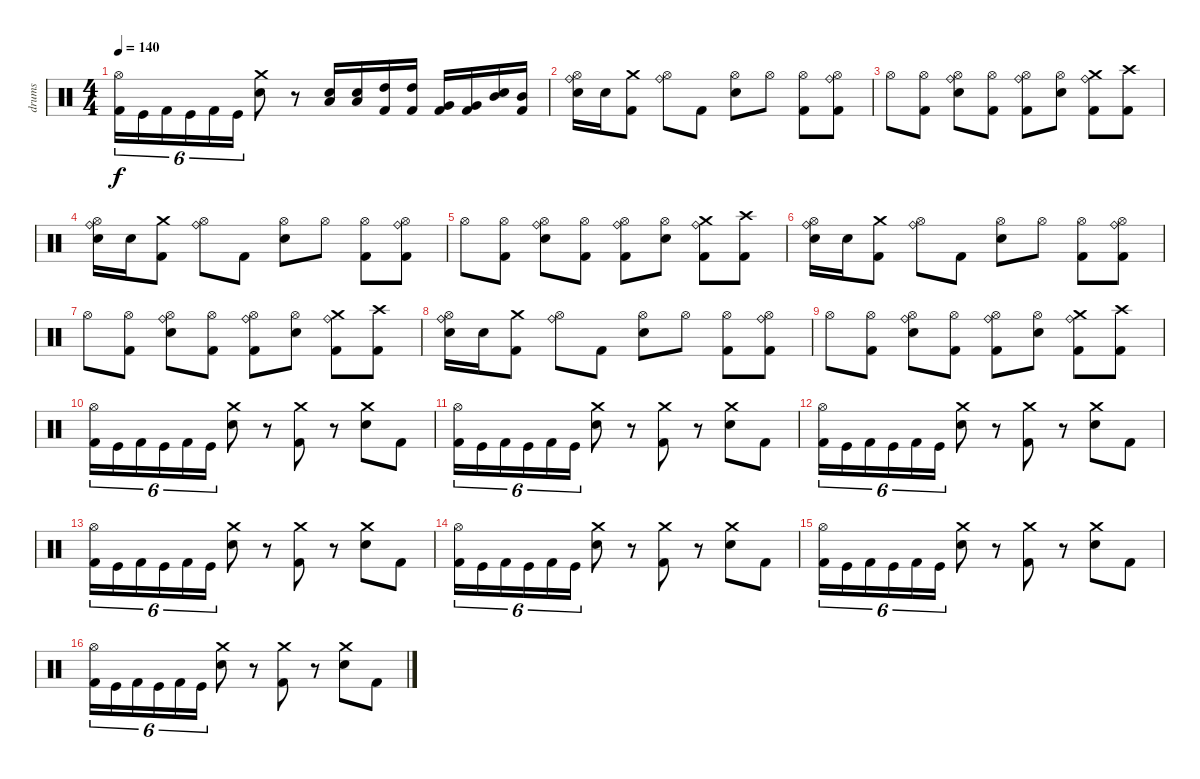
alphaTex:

\track ("drums" "drums") {instrument percussion}
\staff {score}
\articulation defaults
\ts (4 4)
\tempo 140
\clef neutral
\ks c
("Hi-Hat (open)" "Kick (hit) 2").16{tu (6 4) dy f} "Kick (hit)".16{tu (6 4)} "Kick (hit) 2".16{tu (6 4)} "Kick (hit)".16{tu (6 4)} "Kick (hit) 2".16{tu (6 4)} "Kick (hit)".16{tu (6 4)} ("Crash medium (hit)" "Snare (hit) 2").8 r.8 ("Low Floor Tom (hit)" "Snare (hit) 2").16 ("Low Floor Tom (hit)" "Snare (hit) 2").16 ("High Tom (hit)" "Kick (hit) 2").16 ("High Tom (hit)" "Kick (hit) 2").16 ("Very Low Tom (hit)" "Kick (hit) 2").16 ("Very Low Tom (hit)" "Kick (hit) 2").16 ("Mid Tom (hit)" "Snare (hit) 2").16 ("Mid Tom (hit)" "Kick (hit) 2").16 |
("Ride (bell)" "Hi-Hat (open)" "Snare (hit) 2").16 "Snare (hit) 2".16 ("Crash medium (hit)" "Kick (hit) 2").8 ("Ride (bell)" "Hi-Hat (open)").8 "Kick (hit) 2".8 ("Hi-Hat (open)" "Snare (hit) 2").8 "Hi-Hat (open)".8 ("Hi-Hat (open)" "Kick (hit) 2").8 ("Ride (bell)" "Hi-Hat (open)" "Kick (hit) 2").8 |
"Hi-Hat (open)".8 ("Hi-Hat (open)" "Kick (hit) 2").8 ("Ride (bell)" "Hi-Hat (open)" "Snare (hit) 2").8 ("Hi-Hat (open)" "Kick (hit) 2").8 ("Ride (bell)" "Hi-Hat (open)" "Kick (hit) 2").8 ("Hi-Hat (open)" "Snare (hit) 2").8 ("Ride (bell)" "Crash medium (hit)" "Kick (hit) 2").8 ("Crash high (hit)" "Kick (hit) 2").8 |
("Ride (bell)" "Hi-Hat (open)" "Snare (hit) 2").16 "Snare (hit) 2".16 ("Crash medium (hit)" "Kick (hit) 2").8 ("Ride (bell)" "Hi-Hat (open)").8 "Kick (hit) 2".8 ("Hi-Hat (open)" "Snare (hit) 2").8 "Hi-Hat (open)".8 ("Hi-Hat (open)" "Kick (hit) 2").8 ("Ride (bell)" "Hi-Hat (open)" "Kick (hit) 2").8 |
"Hi-Hat (open)".8 ("Hi-Hat (open)" "Kick (hit) 2").8 ("Ride (bell)" "Hi-Hat (open)" "Snare (hit) 2").8 ("Hi-Hat (open)" "Kick (hit) 2").8 ("Ride (bell)" "Hi-Hat (open)" "Kick (hit) 2").8 ("Hi-Hat (open)" "Snare (hit) 2").8 ("Ride (bell)" "Crash medium (hit)" "Kick (hit) 2").8 ("Crash high (hit)" "Kick (hit) 2").8 |
("Ride (bell)" "Hi-Hat (open)" "Snare (hit) 2").16 "Snare (hit) 2".16 ("Crash medium (hit)" "Kick (hit) 2").8 ("Ride (bell)" "Hi-Hat (open)").8 "Kick (hit) 2".8 ("Hi-Hat (open)" "Snare (hit) 2").8 "Hi-Hat (open)".8 ("Hi-Hat (open)" "Kick (hit) 2").8 ("Ride (bell)" "Hi-Hat (open)" "Kick (hit) 2").8 |
"Hi-Hat (open)".8 ("Hi-Hat (open)" "Kick (hit) 2").8 ("Ride (bell)" "Hi-Hat (open)" "Snare (hit) 2").8 ("Hi-Hat (open)" "Kick (hit) 2").8 ("Ride (bell)" "Hi-Hat (open)" "Kick (hit) 2").8 ("Hi-Hat (open)" "Snare (hit) 2").8 ("Ride (bell)" "Crash medium (hit)" "Kick (hit) 2").8 ("Crash high (hit)" "Kick (hit) 2").8 |
("Ride (bell)" "Hi-Hat (open)" "Snare (hit) 2").16 "Snare (hit) 2".16 ("Crash medium (hit)" "Kick (hit) 2").8 ("Ride (bell)" "Hi-Hat (open)").8 "Kick (hit) 2".8 ("Hi-Hat (open)" "Snare (hit) 2").8 "Hi-Hat (open)".8 ("Hi-Hat (open)" "Kick (hit) 2").8 ("Ride (bell)" "Hi-Hat (open)" "Kick (hit) 2").8 |
"Hi-Hat (open)".8 ("Hi-Hat (open)" "Kick (hit) 2").8 ("Ride (bell)" "Hi-Hat (open)" "Snare (hit) 2").8 ("Hi-Hat (open)" "Kick (hit) 2").8 ("Ride (bell)" "Hi-Hat (open)" "Kick (hit) 2").8 ("Hi-Hat (open)" "Snare (hit) 2").8 ("Ride (bell)" "Crash medium (hit)" "Kick (hit) 2").8 ("Crash high (hit)" "Kick (hit) 2").8 |
("Hi-Hat (open)" "Kick (hit) 2").16{tu (6 4)} "Kick (hit)".16{tu (6 4)} "Kick (hit) 2".16{tu (6 4)} "Kick (hit)".16{tu (6 4)} "Kick (hit) 2".16{tu (6 4)} "Kick (hit)".16{tu (6 4)} ("Crash medium (hit)" "Snare (hit) 2").8 r.8 ("Crash medium (hit)" "Kick (hit) 2").8 r.8 ("Crash medium (hit)" "Snare (hit) 2").8 "Kick (hit) 2".8 |
("Hi-Hat (open)" "Kick (hit) 2").16{tu (6 4)} "Kick (hit)".16{tu (6 4)} "Kick (hit) 2".16{tu (6 4)} "Kick (hit)".16{tu (6 4)} "Kick (hit) 2".16{tu (6 4)} "Kick (hit)".16{tu (6 4)} ("Crash medium (hit)" "Snare (hit) 2").8 r.8 ("Crash medium (hit)" "Kick (hit) 2").8 r.8 ("Crash medium (hit)" "Snare (hit) 2").8 "Kick (hit) 2".8 |
("Hi-Hat (open)" "Kick (hit) 2").16{tu (6 4)} "Kick (hit)".16{tu (6 4)} "Kick (hit) 2".16{tu (6 4)} "Kick (hit)".16{tu (6 4)} "Kick (hit) 2".16{tu (6 4)} "Kick (hit)".16{tu (6 4)} ("Crash medium (hit)" "Snare (hit) 2").8 r.8 ("Crash medium (hit)" "Kick (hit) 2").8 r.8 ("Crash medium (hit)" "Snare (hit) 2").8 "Kick (hit) 2".8 |
("Hi-Hat (open)" "Kick (hit) 2").16{tu (6 4)} "Kick (hit)".16{tu (6 4)} "Kick (hit) 2".16{tu (6 4)} "Kick (hit)".16{tu (6 4)} "Kick (hit) 2".16{tu (6 4)} "Kick (hit)".16{tu (6 4)} ("Crash medium (hit)" "Snare (hit) 2").8 r.8 ("Crash medium (hit)" "Kick (hit) 2").8 r.8 ("Crash medium (hit)" "Snare (hit) 2").8 "Kick (hit) 2".8 |
("Hi-Hat (open)" "Kick (hit) 2").16{tu (6 4)} "Kick (hit)".16{tu (6 4)} "Kick (hit) 2".16{tu (6 4)} "Kick (hit)".16{tu (6 4)} "Kick (hit) 2".16{tu (6 4)} "Kick (hit)".16{tu (6 4)} ("Crash medium (hit)" "Snare (hit) 2").8 r.8 ("Crash medium (hit)" "Kick (hit) 2").8 r.8 ("Crash medium (hit)" "Snare (hit) 2").8 "Kick (hit) 2".8 |
("Hi-Hat (open)" "Kick (hit) 2").16{tu (6 4)} "Kick (hit)".16{tu (6 4)} "Kick (hit) 2".16{tu (6 4)} "Kick (hit)".16{tu (6 4)} "Kick (hit) 2".16{tu (6 4)} "Kick (hit)".16{tu (6 4)} ("Crash medium (hit)" "Snare (hit) 2").8 r.8 ("Crash medium (hit)" "Kick (hit) 2").8 r.8 ("Crash medium (hit)" "Snare (hit) 2").8 "Kick (hit) 2".8 |
("Hi-Hat (open)" "Kick (hit) 2").16{tu (6 4)} "Kick (hit)".16{tu (6 4)} "Kick (hit) 2".16{tu (6 4)} "Kick (hit)".16{tu (6 4)} "Kick (hit) 2".16{tu (6 4)} "Kick (hit)".16{tu (6 4)} ("Crash medium (hit)" "Snare (hit) 2").8 r.8 ("Crash medium (hit)" "Kick (hit) 2").8 r.8 ("Crash medium (hit)" "Snare (hit) 2").8 "Kick (hit) 2".8
